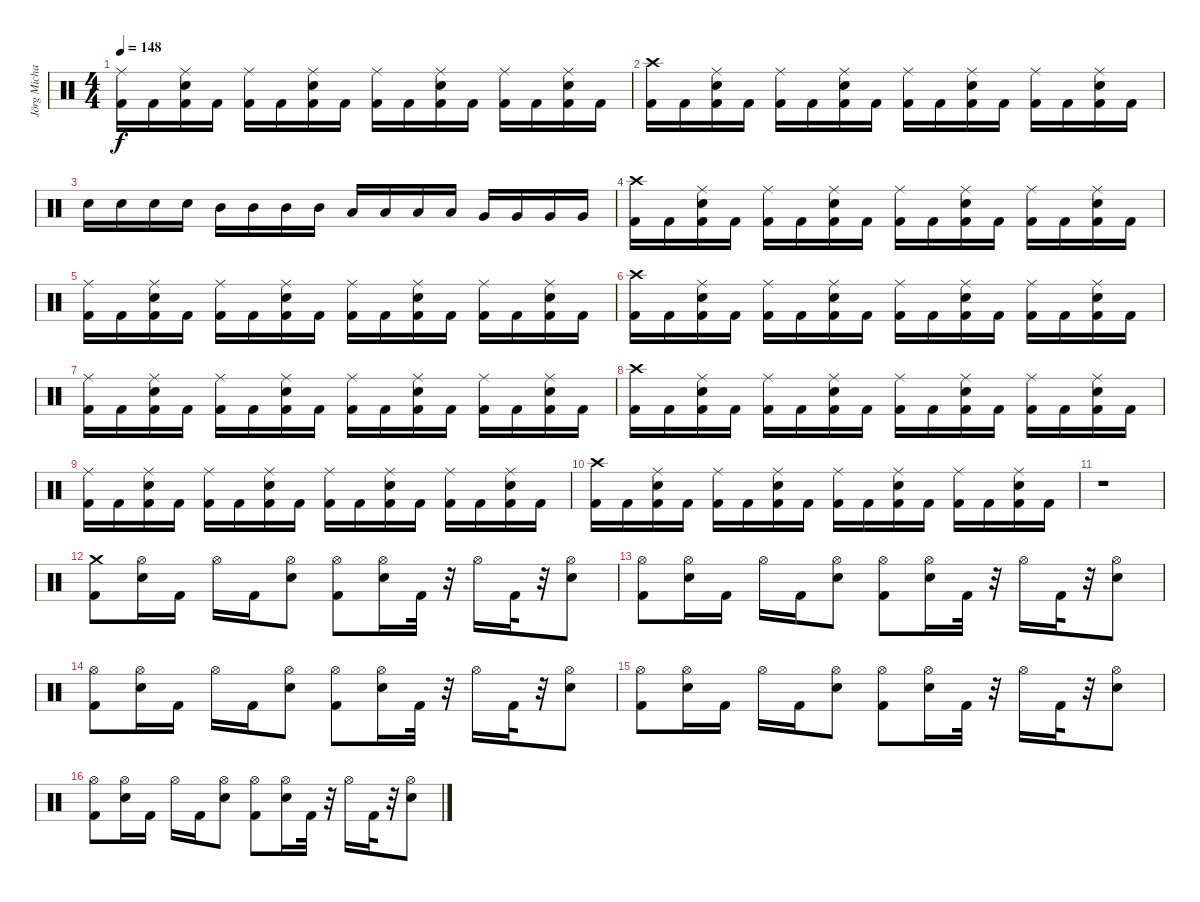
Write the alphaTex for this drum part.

\track ("Jörg Michael" "Jörg Micha") {instrument percussion}
\staff {score}
\articulation defaults
\ts (4 4)
\tempo 148
\clef neutral
\ks c
("Kick (hit) 2" "Ride (middle)").16{dy f} "Kick (hit) 2".16 ("Electric Snare (hit)" "Kick (hit) 2" "Ride (middle)").16 "Kick (hit) 2".16 ("Kick (hit) 2" "Ride (middle)").16 "Kick (hit) 2".16 ("Electric Snare (hit)" "Kick (hit) 2" "Ride (middle)").16 "Kick (hit) 2".16 ("Kick (hit) 2" "Ride (middle)").16 "Kick (hit) 2".16 ("Electric Snare (hit)" "Kick (hit) 2" "Ride (middle)").16 "Kick (hit) 2".16 ("Kick (hit) 2" "Ride (middle)").16 "Kick (hit) 2".16 ("Electric Snare (hit)" "Kick (hit) 2" "Ride (middle)").16 "Kick (hit) 2".16 |
("Kick (hit) 2" "Crash high (hit)").16 "Kick (hit) 2".16 ("Electric Snare (hit)" "Kick (hit) 2" "Ride (middle)").16 "Kick (hit) 2".16 ("Kick (hit) 2" "Ride (middle)").16 "Kick (hit) 2".16 ("Electric Snare (hit)" "Kick (hit) 2" "Ride (middle)").16 "Kick (hit) 2".16 ("Kick (hit) 2" "Ride (middle)").16 "Kick (hit) 2".16 ("Electric Snare (hit)" "Kick (hit) 2" "Ride (middle)").16 "Kick (hit) 2".16 ("Kick (hit) 2" "Ride (middle)").16 "Kick (hit) 2".16 ("Electric Snare (hit)" "Kick (hit) 2" "Ride (middle)").16 "Kick (hit) 2".16 |
"Electric Snare (hit)".16 "Electric Snare (hit)".16 "Electric Snare (hit)".16 "Electric Snare (hit)".16 "Mid Tom (hit)".16 "Mid Tom (hit)".16 "Mid Tom (hit)".16 "Mid Tom (hit)".16 "Low Tom (hit)".16 "Low Tom (hit)".16 "Low Tom (hit)".16 "Low Tom (hit)".16 "Very Low Tom (hit)".16 "Very Low Tom (hit)".16 "Very Low Tom (hit)".16 "Very Low Tom (hit)".16 |
("Kick (hit) 2" "Crash high (hit)").16 "Kick (hit) 2".16 ("Electric Snare (hit)" "Kick (hit) 2" "Ride (middle)").16 "Kick (hit) 2".16 ("Kick (hit) 2" "Ride (middle)").16 "Kick (hit) 2".16 ("Electric Snare (hit)" "Kick (hit) 2" "Ride (middle)").16 "Kick (hit) 2".16 ("Kick (hit) 2" "Ride (middle)").16 "Kick (hit) 2".16 ("Electric Snare (hit)" "Kick (hit) 2" "Ride (middle)").16 "Kick (hit) 2".16 ("Kick (hit) 2" "Ride (middle)").16 "Kick (hit) 2".16 ("Electric Snare (hit)" "Kick (hit) 2" "Ride (middle)").16 "Kick (hit) 2".16 |
("Kick (hit) 2" "Ride (middle)").16 "Kick (hit) 2".16 ("Electric Snare (hit)" "Kick (hit) 2" "Ride (middle)").16 "Kick (hit) 2".16 ("Kick (hit) 2" "Ride (middle)").16 "Kick (hit) 2".16 ("Electric Snare (hit)" "Kick (hit) 2" "Ride (middle)").16 "Kick (hit) 2".16 ("Kick (hit) 2" "Ride (middle)").16 "Kick (hit) 2".16 ("Electric Snare (hit)" "Kick (hit) 2" "Ride (middle)").16 "Kick (hit) 2".16 ("Kick (hit) 2" "Ride (middle)").16 "Kick (hit) 2".16 ("Electric Snare (hit)" "Kick (hit) 2" "Ride (middle)").16 "Kick (hit) 2".16 |
("Kick (hit) 2" "Crash high (hit)").16 "Kick (hit) 2".16 ("Electric Snare (hit)" "Kick (hit) 2" "Ride (middle)").16 "Kick (hit) 2".16 ("Kick (hit) 2" "Ride (middle)").16 "Kick (hit) 2".16 ("Electric Snare (hit)" "Kick (hit) 2" "Ride (middle)").16 "Kick (hit) 2".16 ("Kick (hit) 2" "Ride (middle)").16 "Kick (hit) 2".16 ("Electric Snare (hit)" "Kick (hit) 2" "Ride (middle)").16 "Kick (hit) 2".16 ("Kick (hit) 2" "Ride (middle)").16 "Kick (hit) 2".16 ("Electric Snare (hit)" "Kick (hit) 2" "Ride (middle)").16 "Kick (hit) 2".16 |
("Kick (hit) 2" "Ride (middle)").16 "Kick (hit) 2".16 ("Electric Snare (hit)" "Kick (hit) 2" "Ride (middle)").16 "Kick (hit) 2".16 ("Kick (hit) 2" "Ride (middle)").16 "Kick (hit) 2".16 ("Electric Snare (hit)" "Kick (hit) 2" "Ride (middle)").16 "Kick (hit) 2".16 ("Kick (hit) 2" "Ride (middle)").16 "Kick (hit) 2".16 ("Electric Snare (hit)" "Kick (hit) 2" "Ride (middle)").16 "Kick (hit) 2".16 ("Kick (hit) 2" "Ride (middle)").16 "Kick (hit) 2".16 ("Electric Snare (hit)" "Kick (hit) 2" "Ride (middle)").16 "Kick (hit) 2".16 |
("Kick (hit) 2" "Crash high (hit)").16 "Kick (hit) 2".16 ("Electric Snare (hit)" "Kick (hit) 2" "Ride (middle)").16 "Kick (hit) 2".16 ("Kick (hit) 2" "Ride (middle)").16 "Kick (hit) 2".16 ("Electric Snare (hit)" "Kick (hit) 2" "Ride (middle)").16 "Kick (hit) 2".16 ("Kick (hit) 2" "Ride (middle)").16 "Kick (hit) 2".16 ("Electric Snare (hit)" "Kick (hit) 2" "Ride (middle)").16 "Kick (hit) 2".16 ("Kick (hit) 2" "Ride (middle)").16 "Kick (hit) 2".16 ("Electric Snare (hit)" "Kick (hit) 2" "Ride (middle)").16 "Kick (hit) 2".16 |
("Kick (hit) 2" "Ride (middle)").16 "Kick (hit) 2".16 ("Electric Snare (hit)" "Kick (hit) 2" "Ride (middle)").16 "Kick (hit) 2".16 ("Kick (hit) 2" "Ride (middle)").16 "Kick (hit) 2".16 ("Electric Snare (hit)" "Kick (hit) 2" "Ride (middle)").16 "Kick (hit) 2".16 ("Kick (hit) 2" "Ride (middle)").16 "Kick (hit) 2".16 ("Electric Snare (hit)" "Kick (hit) 2" "Ride (middle)").16 "Kick (hit) 2".16 ("Kick (hit) 2" "Ride (middle)").16 "Kick (hit) 2".16 ("Electric Snare (hit)" "Kick (hit) 2" "Ride (middle)").16 "Kick (hit) 2".16 |
("Kick (hit) 2" "Crash high (hit)").16 "Kick (hit) 2".16 ("Electric Snare (hit)" "Kick (hit) 2" "Ride (middle)").16 "Kick (hit) 2".16 ("Kick (hit) 2" "Ride (middle)").16 "Kick (hit) 2".16 ("Electric Snare (hit)" "Kick (hit) 2" "Ride (middle)").16 "Kick (hit) 2".16 ("Kick (hit) 2" "Ride (middle)").16 "Kick (hit) 2".16 ("Electric Snare (hit)" "Kick (hit) 2" "Ride (middle)").16 "Kick (hit) 2".16 ("Kick (hit) 2" "Ride (middle)").16 "Kick (hit) 2".16 ("Electric Snare (hit)" "Kick (hit) 2" "Ride (middle)").16 "Kick (hit) 2".16 |
r.1 |
("Crash medium (hit)" "Kick (hit) 2").8 ("Hi-Hat (open)" "Electric Snare (hit)").16 "Kick (hit) 2".16 "Hi-Hat (open)".16 "Kick (hit) 2".16 ("Hi-Hat (open)" "Electric Snare (hit)").8 ("Hi-Hat (open)" "Kick (hit) 2").8 ("Hi-Hat (open)" "Electric Snare (hit)").16 "Kick (hit) 2".32 r.32 "Hi-Hat (open)".16 "Kick (hit) 2".32 r.32 ("Hi-Hat (open)" "Electric Snare (hit)").8 |
("Hi-Hat (open)" "Kick (hit) 2").8 ("Hi-Hat (open)" "Electric Snare (hit)").16 "Kick (hit) 2".16 "Hi-Hat (open)".16 "Kick (hit) 2".16 ("Hi-Hat (open)" "Electric Snare (hit)").8 ("Hi-Hat (open)" "Kick (hit) 2").8 ("Hi-Hat (open)" "Electric Snare (hit)").16 "Kick (hit) 2".32 r.32 "Hi-Hat (open)".16 "Kick (hit) 2".32 r.32 ("Hi-Hat (open)" "Electric Snare (hit)").8 |
("Hi-Hat (open)" "Kick (hit) 2").8 ("Hi-Hat (open)" "Electric Snare (hit)").16 "Kick (hit) 2".16 "Hi-Hat (open)".16 "Kick (hit) 2".16 ("Hi-Hat (open)" "Electric Snare (hit)").8 ("Hi-Hat (open)" "Kick (hit) 2").8 ("Hi-Hat (open)" "Electric Snare (hit)").16 "Kick (hit) 2".32 r.32 "Hi-Hat (open)".16 "Kick (hit) 2".32 r.32 ("Hi-Hat (open)" "Electric Snare (hit)").8 |
("Hi-Hat (open)" "Kick (hit) 2").8 ("Hi-Hat (open)" "Electric Snare (hit)").16 "Kick (hit) 2".16 "Hi-Hat (open)".16 "Kick (hit) 2".16 ("Hi-Hat (open)" "Electric Snare (hit)").8 ("Hi-Hat (open)" "Kick (hit) 2").8 ("Hi-Hat (open)" "Electric Snare (hit)").16 "Kick (hit) 2".32 r.32 "Hi-Hat (open)".16 "Kick (hit) 2".32 r.32 ("Hi-Hat (open)" "Electric Snare (hit)").8 |
("Hi-Hat (open)" "Kick (hit) 2").8 ("Hi-Hat (open)" "Electric Snare (hit)").16 "Kick (hit) 2".16 "Hi-Hat (open)".16 "Kick (hit) 2".16 ("Hi-Hat (open)" "Electric Snare (hit)").8 ("Hi-Hat (open)" "Kick (hit) 2").8 ("Hi-Hat (open)" "Electric Snare (hit)").16 "Kick (hit) 2".32 r.32 "Hi-Hat (open)".16 "Kick (hit) 2".32 r.32 ("Hi-Hat (open)" "Electric Snare (hit)").8
